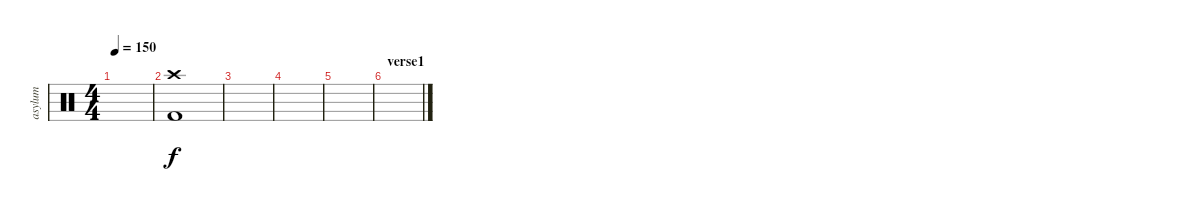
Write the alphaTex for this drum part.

\track ("asylum" "asylum") {instrument percussion}
\staff {score}
\articulation defaults
\ts (4 4)
\tempo 150
\clef neutral
\ks c
|
("Crash high (hit)" "Kick (hit) 2").1{dy f} |
|
|
|
\section ("" "verse1")
